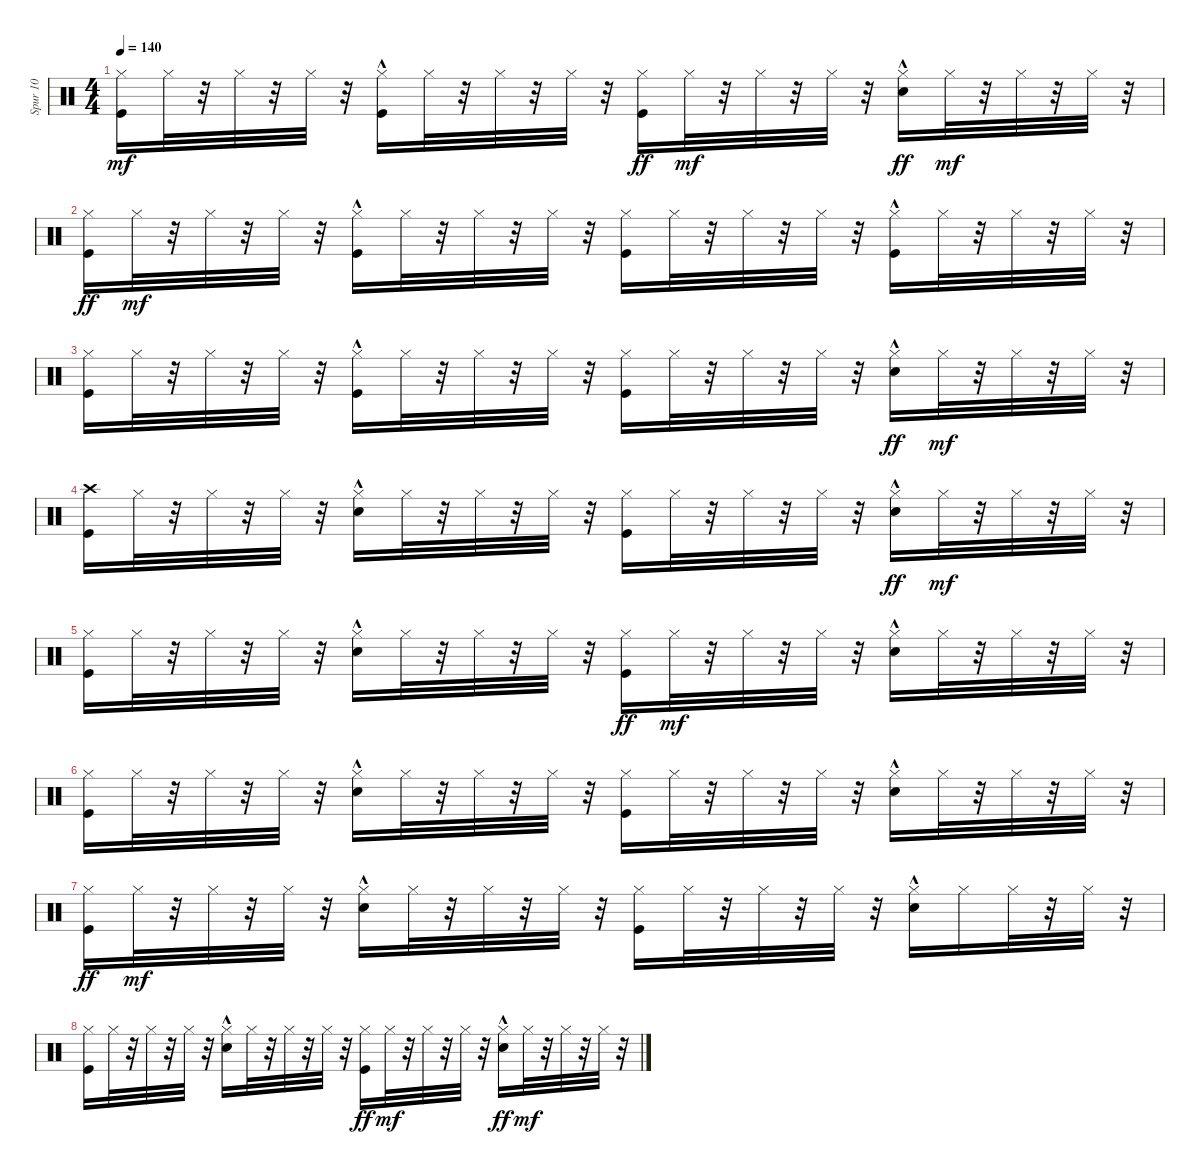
\track ("Spur 10" "Spur 10") {instrument percussion}
\staff {score}
\articulation defaults
\ts (4 4)
\tempo 140
\clef neutral
\ks c
("Kick (hit)" "Hi-Hat (closed)").16{dy mf} "Hi-Hat (closed)".32 r.32 "Hi-Hat (closed)".32 r.32 "Hi-Hat (closed)".32 r.32 ("Kick (hit)"{hac} "Hi-Hat (closed)").16 "Hi-Hat (closed)".32 r.32 "Hi-Hat (closed)".32 r.32 "Hi-Hat (closed)".32 r.32 ("Hi-Hat (closed)" "Kick (hit)").16{dy ff} "Hi-Hat (closed)".32{dy mf} r.32 "Hi-Hat (closed)".32 r.32 "Hi-Hat (closed)".32 r.32 ("Hi-Hat (closed)" "Snare (hit) 2"{hac}).16{dy ff} "Hi-Hat (closed)".32{dy mf} r.32 "Hi-Hat (closed)".32 r.32 "Hi-Hat (closed)".32 r.32 |
("Hi-Hat (closed)" "Kick (hit)").16{dy ff} "Hi-Hat (closed)".32{dy mf} r.32 "Hi-Hat (closed)".32 r.32 "Hi-Hat (closed)".32 r.32 ("Kick (hit)"{hac} "Hi-Hat (closed)").16 "Hi-Hat (closed)".32 r.32 "Hi-Hat (closed)".32 r.32 "Hi-Hat (closed)".32 r.32 ("Kick (hit)" "Hi-Hat (closed)").16 "Hi-Hat (closed)".32 r.32 "Hi-Hat (closed)".32 r.32 "Hi-Hat (closed)".32 r.32 ("Kick (hit)"{hac} "Hi-Hat (closed)").16 "Hi-Hat (closed)".32 r.32 "Hi-Hat (closed)".32 r.32 "Hi-Hat (closed)".32 r.32 |
("Kick (hit)" "Hi-Hat (closed)").16 "Hi-Hat (closed)".32 r.32 "Hi-Hat (closed)".32 r.32 "Hi-Hat (closed)".32 r.32 ("Kick (hit)"{hac} "Hi-Hat (closed)").16 "Hi-Hat (closed)".32 r.32 "Hi-Hat (closed)".32 r.32 "Hi-Hat (closed)".32 r.32 ("Kick (hit)" "Hi-Hat (closed)").16 "Hi-Hat (closed)".32 r.32 "Hi-Hat (closed)".32 r.32 "Hi-Hat (closed)".32 r.32 ("Hi-Hat (closed)" "Snare (hit) 2"{hac}).16{dy ff} "Hi-Hat (closed)".32{dy mf} r.32 "Hi-Hat (closed)".32 r.32 "Hi-Hat (closed)".32 r.32 |
("Kick (hit)" "Crash high (hit)").16 "Hi-Hat (closed)".32 r.32 "Hi-Hat (closed)".32 r.32 "Hi-Hat (closed)".32 r.32 ("Snare (hit) 2"{hac} "Hi-Hat (closed)").16 "Hi-Hat (closed)".32 r.32 "Hi-Hat (closed)".32 r.32 "Hi-Hat (closed)".32 r.32 ("Kick (hit)" "Hi-Hat (closed)").16 "Hi-Hat (closed)".32 r.32 "Hi-Hat (closed)".32 r.32 "Hi-Hat (closed)".32 r.32 ("Hi-Hat (closed)" "Snare (hit) 2"{hac}).16{dy ff} "Hi-Hat (closed)".32{dy mf} r.32 "Hi-Hat (closed)".32 r.32 "Hi-Hat (closed)".32 r.32 |
("Kick (hit)" "Hi-Hat (closed)").16 "Hi-Hat (closed)".32 r.32 "Hi-Hat (closed)".32 r.32 "Hi-Hat (closed)".32 r.32 ("Snare (hit) 2"{hac} "Hi-Hat (closed)").16 "Hi-Hat (closed)".32 r.32 "Hi-Hat (closed)".32 r.32 "Hi-Hat (closed)".32 r.32 ("Hi-Hat (closed)" "Kick (hit)").16{dy ff} "Hi-Hat (closed)".32{dy mf} r.32 "Hi-Hat (closed)".32 r.32 "Hi-Hat (closed)".32 r.32 ("Snare (hit) 2"{hac} "Hi-Hat (closed)").16 "Hi-Hat (closed)".32 r.32 "Hi-Hat (closed)".32 r.32 "Hi-Hat (closed)".32 r.32 |
("Kick (hit)" "Hi-Hat (closed)").16 "Hi-Hat (closed)".32 r.32 "Hi-Hat (closed)".32 r.32 "Hi-Hat (closed)".32 r.32 ("Snare (hit) 2"{hac} "Hi-Hat (closed)").16 "Hi-Hat (closed)".32 r.32 "Hi-Hat (closed)".32 r.32 "Hi-Hat (closed)".32 r.32 ("Kick (hit)" "Hi-Hat (closed)").16 "Hi-Hat (closed)".32 r.32 "Hi-Hat (closed)".32 r.32 "Hi-Hat (closed)".32 r.32 ("Snare (hit) 2"{hac} "Hi-Hat (closed)").16 "Hi-Hat (closed)".32 r.32 "Hi-Hat (closed)".32 r.32 "Hi-Hat (closed)".32 r.32 |
("Hi-Hat (closed)" "Kick (hit)").16{dy ff} "Hi-Hat (closed)".32{dy mf} r.32 "Hi-Hat (closed)".32 r.32 "Hi-Hat (closed)".32 r.32 ("Snare (hit) 2"{hac} "Hi-Hat (closed)").16 "Hi-Hat (closed)".32 r.32 "Hi-Hat (closed)".32 r.32 "Hi-Hat (closed)".32 r.32 ("Kick (hit)" "Hi-Hat (closed)").16 "Hi-Hat (closed)".32 r.32 "Hi-Hat (closed)".32 r.32 "Hi-Hat (closed)".32 r.32 ("Snare (hit) 2"{hac} "Hi-Hat (closed)").16 "Hi-Hat (closed)".16 "Hi-Hat (closed)".32 r.32 "Hi-Hat (closed)".32 r.32 |
("Kick (hit)" "Hi-Hat (closed)").16 "Hi-Hat (closed)".32 r.32 "Hi-Hat (closed)".32 r.32 "Hi-Hat (closed)".32 r.32 ("Snare (hit) 2"{hac} "Hi-Hat (closed)").16 "Hi-Hat (closed)".32 r.32 "Hi-Hat (closed)".32 r.32 "Hi-Hat (closed)".32 r.32 ("Hi-Hat (closed)" "Kick (hit)").16{dy ff} "Hi-Hat (closed)".32{dy mf} r.32 "Hi-Hat (closed)".32 r.32 "Hi-Hat (closed)".32 r.32 ("Hi-Hat (closed)" "Snare (hit) 2"{hac}).16{dy ff} "Hi-Hat (closed)".32{dy mf} r.32 "Hi-Hat (closed)".32 r.32 "Hi-Hat (closed)".32 r.32
